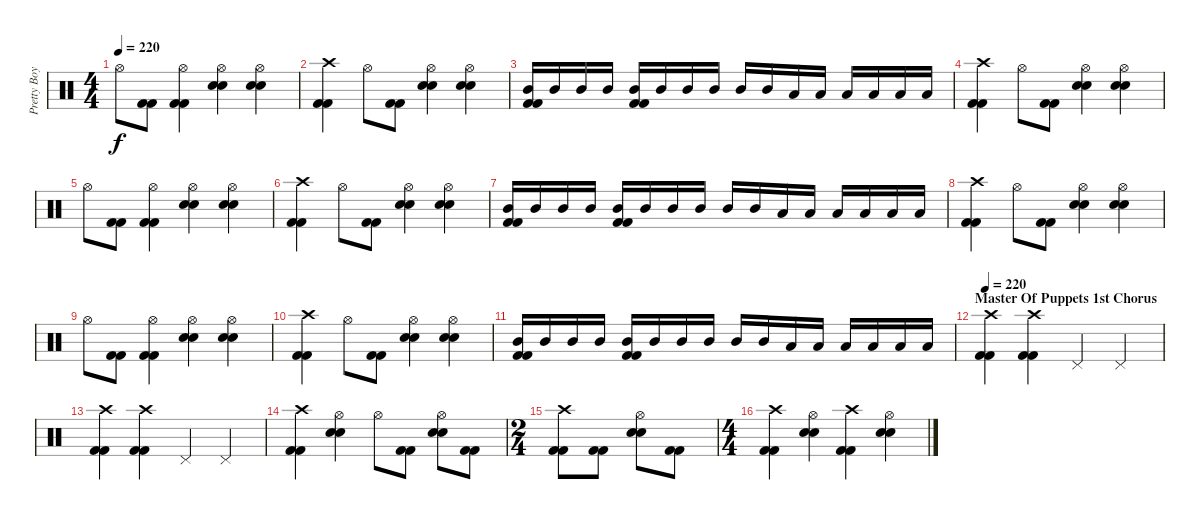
\track ("Pretty Boy Geoff (Lars Drums)" "Pretty Boy") {instrument percussion}
\staff {score}
\articulation defaults
\ts (4 4)
\tempo 220
\clef neutral
\ks c "Hi-Hat (open)".8{dy f}
("Kick (hit) 2" "Kick (hit) 2").8 ("Hi-Hat (open)" "Kick (hit) 2" "Kick (hit) 2").4 ("Hi-Hat (open)" "Electric Snare (hit)" "Electric Snare (hit)").4 ("Hi-Hat (open)" "Electric Snare (hit)" "Electric Snare (hit)").4 |
("Crash high (hit)" "Kick (hit) 2" "Kick (hit) 2").4 "Hi-Hat (open)".8 ("Kick (hit) 2" "Kick (hit) 2").8 ("Hi-Hat (open)" "Electric Snare (hit)" "Electric Snare (hit)").4 ("Hi-Hat (open)" "Electric Snare (hit)" "Electric Snare (hit)").4 |
("Mid Tom (hit)" "Kick (hit) 2" "Kick (hit) 2").16 "Mid Tom (hit)".16 "Mid Tom (hit)".16 "Mid Tom (hit)".16 ("Mid Tom (hit)" "Kick (hit) 2" "Kick (hit) 2").16 "Mid Tom (hit)".16 "Mid Tom (hit)".16 "Mid Tom (hit)".16 "Mid Tom (hit)".16 "Mid Tom (hit)".16 "Low Tom (hit)".16 "Low Tom (hit)".16 "Low Tom (hit)".16 "Low Tom (hit)".16 "Low Tom (hit)".16 "Low Tom (hit)".16 |
("Crash high (hit)" "Kick (hit) 2" "Kick (hit) 2").4 "Hi-Hat (open)".8 ("Kick (hit) 2" "Kick (hit) 2").8 ("Hi-Hat (open)" "Electric Snare (hit)" "Electric Snare (hit)").4 ("Hi-Hat (open)" "Electric Snare (hit)" "Electric Snare (hit)").4 |
"Hi-Hat (open)".8 ("Kick (hit) 2" "Kick (hit) 2").8 ("Hi-Hat (open)" "Kick (hit) 2" "Kick (hit) 2").4 ("Hi-Hat (open)" "Electric Snare (hit)" "Electric Snare (hit)").4 ("Hi-Hat (open)" "Electric Snare (hit)" "Electric Snare (hit)").4 |
("Crash high (hit)" "Kick (hit) 2" "Kick (hit) 2").4 "Hi-Hat (open)".8 ("Kick (hit) 2" "Kick (hit) 2").8 ("Hi-Hat (open)" "Electric Snare (hit)" "Electric Snare (hit)").4 ("Hi-Hat (open)" "Electric Snare (hit)" "Electric Snare (hit)").4 |
("Mid Tom (hit)" "Kick (hit) 2" "Kick (hit) 2").16 "Mid Tom (hit)".16 "Mid Tom (hit)".16 "Mid Tom (hit)".16 ("Mid Tom (hit)" "Kick (hit) 2" "Kick (hit) 2").16 "Mid Tom (hit)".16 "Mid Tom (hit)".16 "Mid Tom (hit)".16 "Mid Tom (hit)".16 "Mid Tom (hit)".16 "Low Tom (hit)".16 "Low Tom (hit)".16 "Low Tom (hit)".16 "Low Tom (hit)".16 "Low Tom (hit)".16 "Low Tom (hit)".16 |
("Crash high (hit)" "Kick (hit) 2" "Kick (hit) 2").4 "Hi-Hat (open)".8 ("Kick (hit) 2" "Kick (hit) 2").8 ("Hi-Hat (open)" "Electric Snare (hit)" "Electric Snare (hit)").4 ("Hi-Hat (open)" "Electric Snare (hit)" "Electric Snare (hit)").4 |
"Hi-Hat (open)".8 ("Kick (hit) 2" "Kick (hit) 2").8 ("Hi-Hat (open)" "Kick (hit) 2" "Kick (hit) 2").4 ("Hi-Hat (open)" "Electric Snare (hit)" "Electric Snare (hit)").4 ("Hi-Hat (open)" "Electric Snare (hit)" "Electric Snare (hit)").4 |
("Crash high (hit)" "Kick (hit) 2" "Kick (hit) 2").4 "Hi-Hat (open)".8 ("Kick (hit) 2" "Kick (hit) 2").8 ("Hi-Hat (open)" "Electric Snare (hit)" "Electric Snare (hit)").4 ("Hi-Hat (open)" "Electric Snare (hit)" "Electric Snare (hit)").4 |
("Mid Tom (hit)" "Kick (hit) 2" "Kick (hit) 2").16 "Mid Tom (hit)".16 "Mid Tom (hit)".16 "Mid Tom (hit)".16 ("Mid Tom (hit)" "Kick (hit) 2" "Kick (hit) 2").16 "Mid Tom (hit)".16 "Mid Tom (hit)".16 "Mid Tom (hit)".16 "Mid Tom (hit)".16 "Mid Tom (hit)".16 "Low Tom (hit)".16 "Low Tom (hit)".16 "Low Tom (hit)".16 "Low Tom (hit)".16 "Low Tom (hit)".16 "Low Tom (hit)".16 |
\section ("" "Master Of Puppets 1st Chorus")
\tempo 220
("Crash high (hit)" "Kick (hit) 2" "Kick (hit) 2").4 ("Crash high (hit)" "Kick (hit) 2" "Kick (hit) 2").4 "Pedal Hi-Hat (hit)".4 "Pedal Hi-Hat (hit)".4 |
("Crash high (hit)" "Kick (hit) 2" "Kick (hit) 2").4 ("Crash high (hit)" "Kick (hit) 2" "Kick (hit) 2").4 "Pedal Hi-Hat (hit)".4 "Pedal Hi-Hat (hit)".4 |
("Crash high (hit)" "Kick (hit) 2" "Kick (hit) 2").4 ("Hi-Hat (open)" "Electric Snare (hit)" "Electric Snare (hit)").4 "Hi-Hat (open)".8 ("Kick (hit) 2" "Kick (hit) 2").8 ("Hi-Hat (open)" "Electric Snare (hit)" "Electric Snare (hit)").8 ("Kick (hit) 2" "Kick (hit) 2").8 |
\ts (2 4)
("Crash high (hit)" "Kick (hit) 2" "Kick (hit) 2").8 ("Kick (hit) 2" "Kick (hit) 2").8 ("Hi-Hat (open)" "Electric Snare (hit)" "Electric Snare (hit)").8 ("Kick (hit) 2" "Kick (hit) 2").8 |
\ts (4 4)
("Crash high (hit)" "Kick (hit) 2" "Kick (hit) 2").4 ("Hi-Hat (open)" "Electric Snare (hit)" "Electric Snare (hit)").4 ("Crash high (hit)" "Kick (hit) 2" "Kick (hit) 2").4 ("Hi-Hat (open)" "Electric Snare (hit)" "Electric Snare (hit)").4
